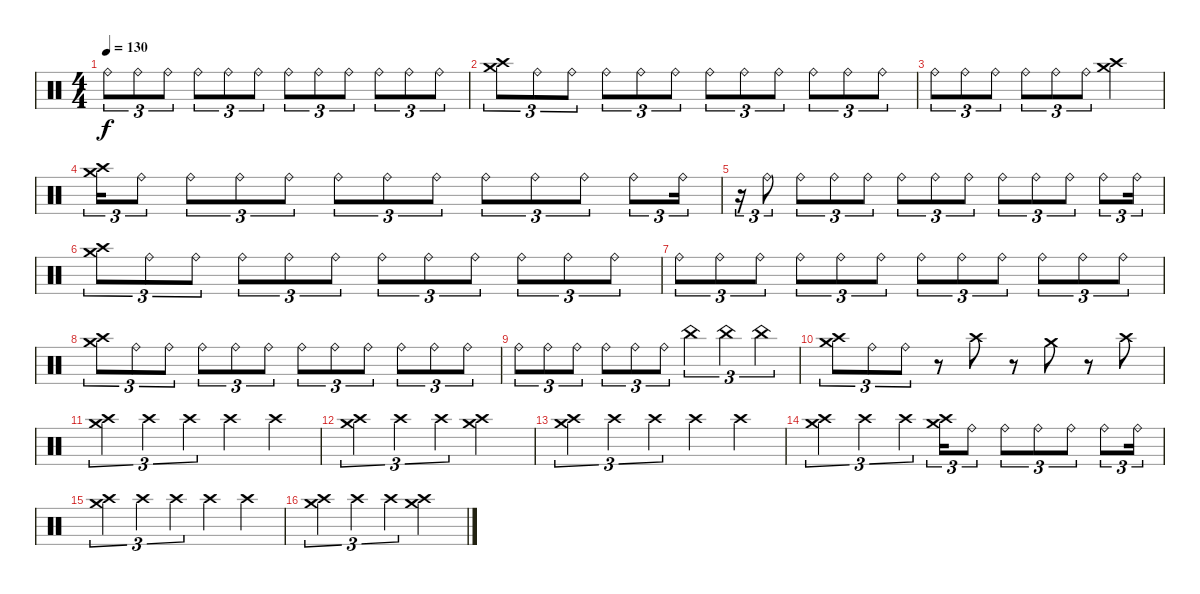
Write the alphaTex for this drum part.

\track "" {instrument percussion}
\staff {score}
\articulation defaults
\ts (4 4)
\tempo 130
\clef neutral
\ks c "Ride (bell)".8{tu (3 2) dy f} "Ride (bell)".8{tu (3 2)} "Ride (bell)".8{tu (3 2)} "Ride (bell)".8{tu (3 2)} "Ride (bell)".8{tu (3 2)} "Ride (bell)".8{tu (3 2)} "Ride (bell)".8{tu (3 2)} "Ride (bell)".8{tu (3 2)} "Ride (bell)".8{tu (3 2)} "Ride (bell)".8{tu (3 2)} "Ride (bell)".8{tu (3 2)} "Ride (bell)".8{tu (3 2)}
|
("Crash medium (hit)" "Crash high (hit)").8{tu (3 2)} "Ride (bell)".8{tu (3 2)} "Ride (bell)".8{tu (3 2)} "Ride (bell)".8{tu (3 2)} "Ride (bell)".8{tu (3 2)} "Ride (bell)".8{tu (3 2)} "Ride (bell)".8{tu (3 2)} "Ride (bell)".8{tu (3 2)} "Ride (bell)".8{tu (3 2)} "Ride (bell)".8{tu (3 2)} "Ride (bell)".8{tu (3 2)} "Ride (bell)".8{tu (3 2)} |
"Ride (bell)".8{tu (3 2)} "Ride (bell)".8{tu (3 2)} "Ride (bell)".8{tu (3 2)} "Ride (bell)".8{tu (3 2)} "Ride (bell)".8{tu (3 2)} "Ride (bell)".8{tu (3 2)} ("Crash high (hit)" "Crash medium (hit)").2 |
("Crash medium (hit)" "Crash high (hit)").16{tu (3 2)} "Ride (bell)".8{tu (3 2)} "Ride (bell)".8{tu (3 2)} "Ride (bell)".8{tu (3 2)} "Ride (bell)".8{tu (3 2)} "Ride (bell)".8{tu (3 2)} "Ride (bell)".8{tu (3 2)} "Ride (bell)".8{tu (3 2)} "Ride (bell)".8{tu (3 2)} "Ride (bell)".8{tu (3 2)} "Ride (bell)".8{tu (3 2)} "Ride (bell)".8{tu (3 2)} "Ride (bell)".16{tu (3 2)} |
r.16{tu (3 2)} "Ride (bell)".8{tu (3 2)} "Ride (bell)".8{tu (3 2)} "Ride (bell)".8{tu (3 2)} "Ride (bell)".8{tu (3 2)} "Ride (bell)".8{tu (3 2)} "Ride (bell)".8{tu (3 2)} "Ride (bell)".8{tu (3 2)} "Ride (bell)".8{tu (3 2)} "Ride (bell)".8{tu (3 2)} "Ride (bell)".8{tu (3 2)} "Ride (bell)".8{tu (3 2)} "Ride (bell)".16{tu (3 2)} |
("Crash medium (hit)" "Crash high (hit)").8{tu (3 2)} "Ride (bell)".8{tu (3 2)} "Ride (bell)".8{tu (3 2)} "Ride (bell)".8{tu (3 2)} "Ride (bell)".8{tu (3 2)} "Ride (bell)".8{tu (3 2)} "Ride (bell)".8{tu (3 2)} "Ride (bell)".8{tu (3 2)} "Ride (bell)".8{tu (3 2)} "Ride (bell)".8{tu (3 2)} "Ride (bell)".8{tu (3 2)} "Ride (bell)".8{tu (3 2)} |
"Ride (bell)".8{tu (3 2)} "Ride (bell)".8{tu (3 2)} "Ride (bell)".8{tu (3 2)} "Ride (bell)".8{tu (3 2)} "Ride (bell)".8{tu (3 2)} "Ride (bell)".8{tu (3 2)} "Ride (bell)".8{tu (3 2)} "Ride (bell)".8{tu (3 2)} "Ride (bell)".8{tu (3 2)} "Ride (bell)".8{tu (3 2)} "Ride (bell)".8{tu (3 2)} "Ride (bell)".8{tu (3 2)} |
("Crash medium (hit)" "Crash high (hit)").8{tu (3 2)} "Ride (bell)".8{tu (3 2)} "Ride (bell)".8{tu (3 2)} "Ride (bell)".8{tu (3 2)} "Ride (bell)".8{tu (3 2)} "Ride (bell)".8{tu (3 2)} "Ride (bell)".8{tu (3 2)} "Ride (bell)".8{tu (3 2)} "Ride (bell)".8{tu (3 2)} "Ride (bell)".8{tu (3 2)} "Ride (bell)".8{tu (3 2)} "Ride (bell)".8{tu (3 2)} |
"Ride (bell)".8{tu (3 2)} "Ride (bell)".8{tu (3 2)} "Ride (bell)".8{tu (3 2)} "Ride (bell)".8{tu (3 2)} "Ride (bell)".8{tu (3 2)} "Ride (bell)".8{tu (3 2)} "China (hit)".4{tu (3 2)} "China (hit)".4{tu (3 2)} "China (hit)".4{tu (3 2)} |
("Crash medium (hit)" "Crash high (hit)").8{tu (3 2)} "Ride (bell)".8{tu (3 2)} "Ride (bell)".8{tu (3 2)} r.8 "Crash high (hit)".8 r.8 "Crash medium (hit)".8 r.8 "Crash high (hit)".8 |
("Crash medium (hit)" "Crash high (hit)").4{tu (3 2)} "Crash high (hit)".4{tu (3 2)} "Crash high (hit)".4{tu (3 2)} "Crash high (hit)".4 "Crash high (hit)".4 |
("Crash medium (hit)" "Crash high (hit)").4{tu (3 2)} "Crash high (hit)".4{tu (3 2)} "Crash high (hit)".4{tu (3 2)} ("Crash medium (hit)" "Crash high (hit)").2 |
("Crash medium (hit)" "Crash high (hit)").4{tu (3 2)} "Crash high (hit)".4{tu (3 2)} "Crash high (hit)".4{tu (3 2)} "Crash high (hit)".4 "Crash high (hit)".4 |
("Crash medium (hit)" "Crash high (hit)").4{tu (3 2)} "Crash high (hit)".4{tu (3 2)} "Crash high (hit)".4{tu (3 2)} ("Crash medium (hit)" "Crash high (hit)").16{tu (3 2)} "Ride (bell)".8{tu (3 2)} "Ride (bell)".8{tu (3 2)} "Ride (bell)".8{tu (3 2)} "Ride (bell)".8{tu (3 2)} "Ride (bell)".8{tu (3 2)} "Ride (bell)".16{tu (3 2)} |
("Crash medium (hit)" "Crash high (hit)").4{tu (3 2)} "Crash high (hit)".4{tu (3 2)} "Crash high (hit)".4{tu (3 2)} "Crash high (hit)".4 "Crash high (hit)".4 |
("Crash medium (hit)" "Crash high (hit)").4{tu (3 2)} "Crash high (hit)".4{tu (3 2)} "Crash high (hit)".4{tu (3 2)} ("Crash medium (hit)" "Crash high (hit)").2
